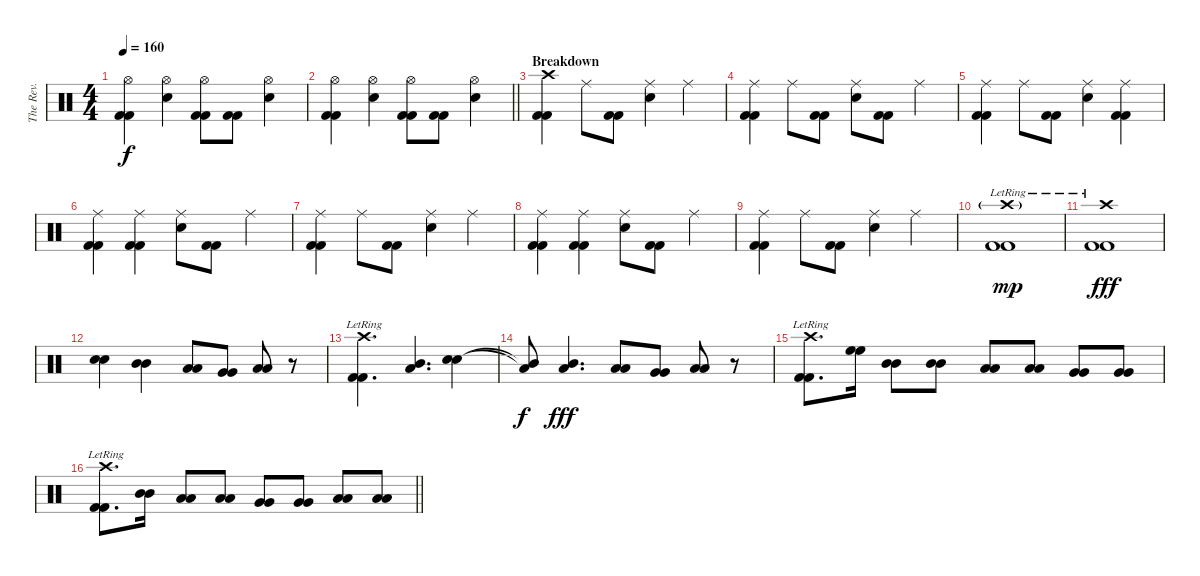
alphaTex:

\track ("The Rev." "The Rev.") {instrument percussion}
\staff {score}
\articulation defaults
\ts (4 4)
\tempo 160
\clef neutral
\ks c
("Hi-Hat (open)" "Kick (hit) 2" "Kick (hit) 2").4{dy f} ("Hi-Hat (open)" "Electric Snare (hit)").4 ("Hi-Hat (open)" "Kick (hit) 2" "Kick (hit) 2").8 ("Kick (hit) 2" "Kick (hit) 2").8 ("Hi-Hat (open)" "Electric Snare (hit)").4 |
\barLineRight lightlight
("Hi-Hat (open)" "Kick (hit) 2" "Kick (hit) 2").4 ("Hi-Hat (open)" "Electric Snare (hit)").4 ("Hi-Hat (open)" "Kick (hit) 2" "Kick (hit) 2").8 ("Kick (hit) 2" "Kick (hit) 2").8 ("Hi-Hat (open)" "Electric Snare (hit)").4 |
\section ("" "Breakdown")
("Crash high (hit)" "Kick (hit) 2" "Kick (hit) 2").4 "Ride (middle)".8 ("Kick (hit) 2" "Kick (hit) 2").8 ("Ride (middle)" "Electric Snare (hit)").4 "Ride (middle)".4 |
("Ride (middle)" "Kick (hit) 2" "Kick (hit) 2").4 "Ride (middle)".8 ("Kick (hit) 2" "Kick (hit) 2").8 ("Ride (middle)" "Electric Snare (hit)").8 ("Kick (hit) 2" "Kick (hit) 2").8 "Ride (middle)".4 |
("Ride (middle)" "Kick (hit) 2" "Kick (hit) 2").4 "Ride (middle)".8 ("Kick (hit) 2" "Kick (hit) 2").8 ("Ride (middle)" "Electric Snare (hit)").4 ("Ride (middle)" "Kick (hit) 2" "Kick (hit) 2").4 |
("Ride (middle)" "Kick (hit) 2" "Kick (hit) 2").4 ("Ride (middle)" "Kick (hit) 2" "Kick (hit) 2").4 ("Ride (middle)" "Electric Snare (hit)").8 ("Kick (hit) 2" "Kick (hit) 2").8 "Ride (middle)".4 |
("Ride (middle)" "Kick (hit) 2" "Kick (hit) 2").4 "Ride (middle)".8 ("Kick (hit) 2" "Kick (hit) 2").8 ("Ride (middle)" "Electric Snare (hit)").4 "Ride (middle)".4 |
("Ride (middle)" "Kick (hit) 2" "Kick (hit) 2").4 ("Ride (middle)" "Kick (hit) 2" "Kick (hit) 2").4 ("Ride (middle)" "Electric Snare (hit)").8 ("Kick (hit) 2" "Kick (hit) 2").8 "Ride (middle)".4 |
("Ride (middle)" "Kick (hit) 2" "Kick (hit) 2").4 "Ride (middle)".8 ("Kick (hit) 2" "Kick (hit) 2").8 ("Ride (middle)" "Electric Snare (hit)").4 "Ride (middle)".4 |
("Crash high (hit)"{g} "Kick (hit) 2" "Kick (hit) 2"{lr}).1{dy mp} |
("Crash high (hit)"{lr} "Kick (hit) 2" "Kick (hit) 2").1{dy fff} |
("Electric Snare (hit)" "Electric Snare (hit)").4 ("Mid Tom (hit)" "Mid Tom (hit)").4 ("Low Tom (hit)" "Low Tom (hit)").8 ("Very Low Tom (hit)" "Very Low Tom (hit)").8 ("Low Floor Tom (hit)" "Low Floor Tom (hit)").8 r.8 |
("Crash high (hit)"{lr} "Kick (hit) 2" "Kick (hit) 2").4{d} ("Mid Tom (hit)" "Low Tom (hit)").4{d} ("Electric Snare (hit)" "Electric Snare (hit)").4 |
("Mid Tom (hit)"{t} "Low Tom (hit)"{t}).8{dy f} ("Mid Tom (hit)" "Low Tom (hit)").4{d dy fff} ("Low Tom (hit)" "Low Tom (hit)").8 ("Very Low Tom (hit)" "Very Low Tom (hit)").8 ("Low Floor Tom (hit)" "Low Floor Tom (hit)").8 r.8 |
("Crash high (hit)"{lr} "Kick (hit) 2" "Kick (hit) 2").8{d} ("High Floor Tom (hit)" "High Floor Tom (hit)").16 ("Mid Tom (hit)" "Mid Tom (hit)").8 ("Mid Tom (hit)" "Mid Tom (hit)").8 ("Low Tom (hit)" "Low Tom (hit)").8 ("Low Tom (hit)" "Low Tom (hit)").8 ("Very Low Tom (hit)" "Very Low Tom (hit)").8 ("Very Low Tom (hit)" "Very Low Tom (hit)").8 |
\barLineRight lightlight
("Crash high (hit)"{lr} "Kick (hit) 2" "Kick (hit) 2").8{d} ("Mid Tom (hit)" "Mid Tom (hit)").16 ("Low Tom (hit)" "Low Tom (hit)").8 ("Low Tom (hit)" "Low Tom (hit)").8 ("Very Low Tom (hit)" "Very Low Tom (hit)").8 ("Very Low Tom (hit)" "Very Low Tom (hit)").8 ("Low Floor Tom (hit)" "Low Floor Tom (hit)").8 ("Low Floor Tom (hit)" "Low Floor Tom (hit)").8
